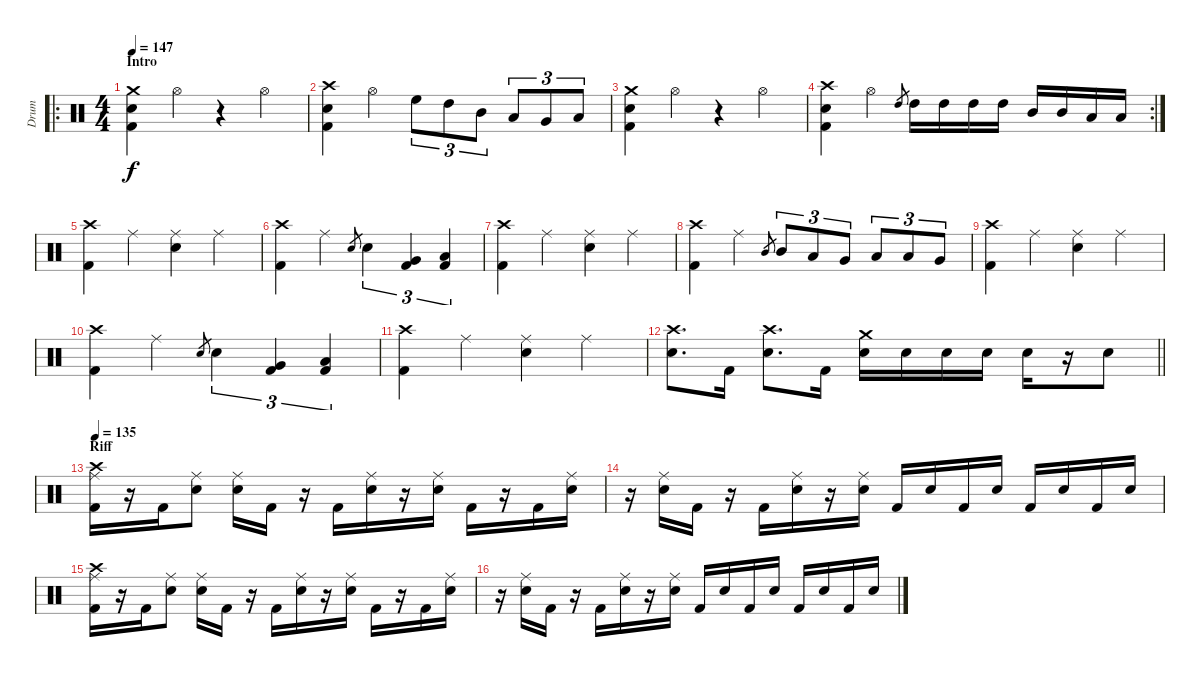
\track ("Drum" "Drum") {instrument percussion}
\staff {score}
\articulation defaults
\ro
\ts (4 4)
\section ("" "Intro")
\tempo 147
\clef neutral
\ks c
("Crash medium (hit)" "Electric Snare (hit)" "Kick (hit) 2").4{dy f} "Hi-Hat (open)".4 r.4 "Hi-Hat (open)".4 |
("Crash high (hit)" "Electric Snare (hit)" "Kick (hit) 2").4 "Hi-Hat (open)".4 "High Floor Tom (hit)".8{tu (3 2)} "High Tom (hit)".8{tu (3 2)} "Mid Tom (hit)".8{tu (3 2)} "Low Tom (hit)".8{tu (3 2)} "Very Low Tom (hit)".8{tu (3 2)} "Low Floor Tom (hit)".8{tu (3 2)} |
("Crash medium (hit)" "Electric Snare (hit)" "Kick (hit) 2").4 "Hi-Hat (open)".4 r.4 "Hi-Hat (open)".4 |
\rc 2
("Crash high (hit)" "Electric Snare (hit)" "Kick (hit) 2").4 "Hi-Hat (open)".4 "High Tom (hit)".8{gr} "High Tom (hit)".16 "High Tom (hit)".16 "High Tom (hit)".16 "High Tom (hit)".16 "Mid Tom (hit)".16 "Mid Tom (hit)".16 "Low Tom (hit)".16 "Low Tom (hit)".16 |
("Crash high (hit)" "Kick (hit) 2").4 "Ride (middle)".4 ("Ride (middle)" "Electric Snare (hit)").4 "Ride (middle)".4 |
("Crash high (hit)" "Kick (hit) 2").4 "Ride (middle)".4 "Electric Snare (hit)".8{gr} "Electric Snare (hit)".4{tu (3 2)} ("Very Low Tom (hit)" "Kick (hit) 2").4{tu (3 2)} ("Low Floor Tom (hit)" "Kick (hit) 2").4{tu (3 2)} |
("Crash high (hit)" "Kick (hit) 2").4 "Ride (middle)".4 ("Ride (middle)" "Electric Snare (hit)").4 "Ride (middle)".4 |
("Crash high (hit)" "Kick (hit) 2").4 "Ride (middle)".4 "Mid Tom (hit)".8{gr} "Mid Tom (hit)".8{tu (3 2)} "Low Tom (hit)".8{tu (3 2)} "Very Low Tom (hit)".8{tu (3 2)} "Low Floor Tom (hit)".8{tu (3 2)} "Low Tom (hit)".8{tu (3 2)} "Very Low Tom (hit)".8{tu (3 2)} |
("Crash high (hit)" "Kick (hit) 2").4 "Ride (middle)".4 ("Ride (middle)" "Electric Snare (hit)").4 "Ride (middle)".4 |
("Crash high (hit)" "Kick (hit) 2").4 "Ride (middle)".4 "Electric Snare (hit)".8{gr} "Electric Snare (hit)".4{tu (3 2)} ("Very Low Tom (hit)" "Kick (hit) 2").4{tu (3 2)} ("Low Floor Tom (hit)" "Kick (hit) 2").4{tu (3 2)} |
("Crash high (hit)" "Kick (hit) 2").4 "Ride (middle)".4 ("Ride (middle)" "Electric Snare (hit)").4 "Ride (middle)".4 |
\barLineRight lightlight
("Crash high (hit)" "Electric Snare (hit)").8{d} "Kick (hit) 2".16 ("Crash high (hit)" "Electric Snare (hit)").8{d} "Kick (hit) 2".16 ("Crash medium (hit)" "Electric Snare (hit)").16 "Electric Snare (hit)".16 "Electric Snare (hit)".16 "Electric Snare (hit)".16 "Electric Snare (hit)".16 r.16 "Electric Snare (hit)".8 |
\section ("" "Riff")
\tempo 135
("Crash high (hit)" "Ride (middle)" "Kick (hit) 2").16 r.16 "Kick (hit) 2".16 ("Ride (middle)" "Electric Snare (hit)").8 ("Ride (middle)" "Electric Snare (hit)").16 "Kick (hit) 2".16 r.16 "Kick (hit) 2".16 ("Ride (middle)" "Electric Snare (hit)").16 r.16 ("Ride (middle)" "Electric Snare (hit)").16 "Kick (hit) 2".16 r.16 "Kick (hit) 2".16 ("Ride (middle)" "Electric Snare (hit)").16 |
r.16 ("Ride (middle)" "Electric Snare (hit)").16 "Kick (hit) 2".16 r.16 "Kick (hit) 2".16 ("Ride (middle)" "Electric Snare (hit)").16 r.16 ("Ride (middle)" "Electric Snare (hit)").16 "Kick (hit) 2".16 "Electric Snare (hit)".16 "Kick (hit) 2".16 "Electric Snare (hit)".16 "Kick (hit) 2".16 "Electric Snare (hit)".16 "Kick (hit) 2".16 "Electric Snare (hit)".16 |
("Crash high (hit)" "Ride (middle)" "Kick (hit) 2").16 r.16 "Kick (hit) 2".16 ("Ride (middle)" "Electric Snare (hit)").8 ("Ride (middle)" "Electric Snare (hit)").16 "Kick (hit) 2".16 r.16 "Kick (hit) 2".16 ("Ride (middle)" "Electric Snare (hit)").16 r.16 ("Ride (middle)" "Electric Snare (hit)").16 "Kick (hit) 2".16 r.16 "Kick (hit) 2".16 ("Ride (middle)" "Electric Snare (hit)").16 |
r.16 ("Ride (middle)" "Electric Snare (hit)").16 "Kick (hit) 2".16 r.16 "Kick (hit) 2".16 ("Ride (middle)" "Electric Snare (hit)").16 r.16 ("Ride (middle)" "Electric Snare (hit)").16 "Kick (hit) 2".16 "Electric Snare (hit)".16 "Kick (hit) 2".16 "Electric Snare (hit)".16 "Kick (hit) 2".16 "Electric Snare (hit)".16 "Kick (hit) 2".16 "Electric Snare (hit)".16
